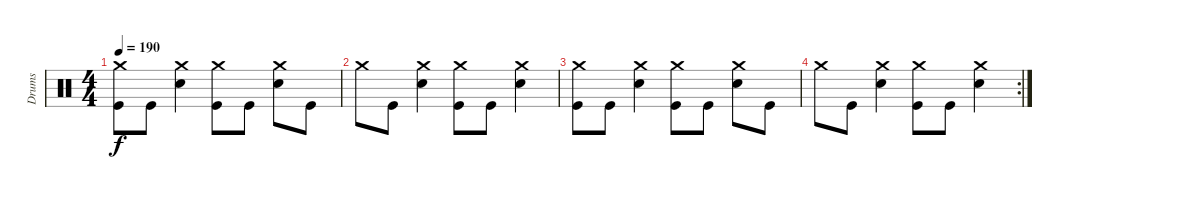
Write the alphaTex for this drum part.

\track ("Drums" "Drums") {instrument percussion}
\staff {score}
\articulation defaults
\ts (4 4)
\tempo 190
\clef neutral
\ks c
("Crash medium (hit)" "Kick (hit)").8{dy f} "Kick (hit)".8 ("Crash medium (hit)" "Snare (hit) 2").4 ("Crash medium (hit)" "Kick (hit)").8 "Kick (hit)".8 ("Crash medium (hit)" "Snare (hit) 2").8 "Kick (hit)".8 |
"Crash medium (hit)".8 "Kick (hit)".8 ("Crash medium (hit)" "Snare (hit) 2").4 ("Crash medium (hit)" "Kick (hit)").8 "Kick (hit)".8 ("Crash medium (hit)" "Snare (hit) 2").4 |
("Crash medium (hit)" "Kick (hit)").8 "Kick (hit)".8 ("Crash medium (hit)" "Snare (hit) 2").4 ("Crash medium (hit)" "Kick (hit)").8 "Kick (hit)".8 ("Crash medium (hit)" "Snare (hit) 2").8 "Kick (hit)".8 |
\rc 2 "Crash medium (hit)".8 "Kick (hit)".8
("Crash medium (hit)" "Snare (hit) 2").4 ("Crash medium (hit)" "Kick (hit)").8 "Kick (hit)".8 ("Crash medium (hit)" "Snare (hit) 2").4
